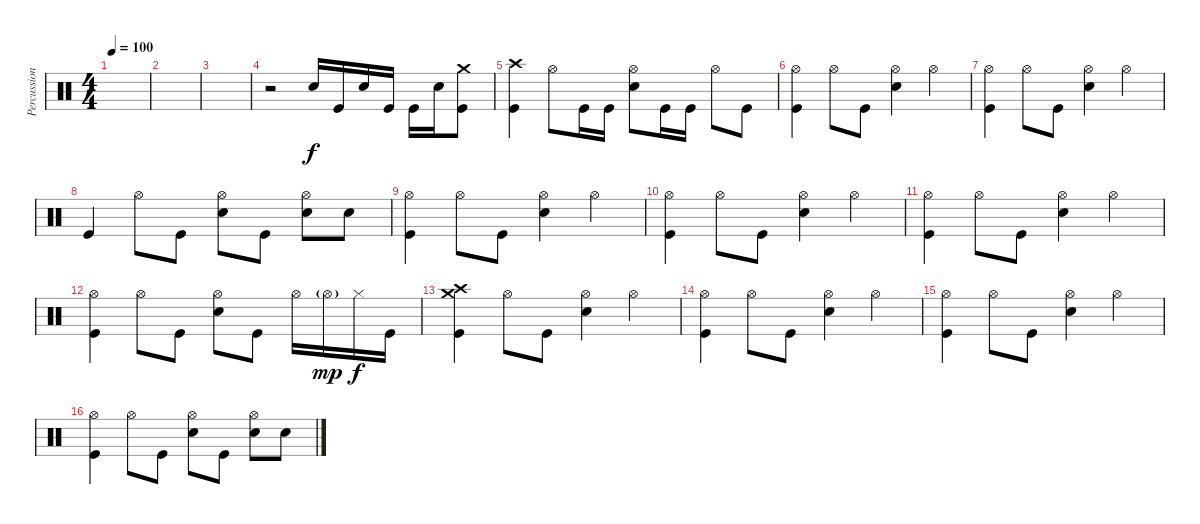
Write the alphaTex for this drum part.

\track ("Percussion" "Percussion") {instrument percussion}
\staff {score}
\articulation defaults
\ts (4 4)
\tempo 100
\clef neutral
\ks c
|
|
|
r.2 "Snare (hit) 2".16 "Kick (hit)".16 "Snare (hit) 2".16 "Kick (hit)".16 "Kick (hit)".16 "Snare (hit) 2".16 ("Crash medium (hit)" "Kick (hit)").8 |
("Crash high (hit)" "Kick (hit)").4 "Hi-Hat (open)".8 "Kick (hit)".16 "Kick (hit)".16 ("Hi-Hat (open)" "Snare (hit) 2").8 "Kick (hit)".16 "Kick (hit)".16 "Hi-Hat (open)".8 "Kick (hit)".8 |
("Hi-Hat (open)" "Kick (hit)").4 "Hi-Hat (open)".8 "Kick (hit)".8 ("Hi-Hat (open)" "Snare (hit) 2").4 "Hi-Hat (open)".4 |
("Hi-Hat (open)" "Kick (hit)").4 "Hi-Hat (open)".8 "Kick (hit)".8 ("Hi-Hat (open)" "Snare (hit) 2").4 "Hi-Hat (open)".4 |
"Kick (hit)".4 "Hi-Hat (open)".8 "Kick (hit)".8 ("Hi-Hat (open)" "Snare (hit) 2").8 "Kick (hit)".8 ("Hi-Hat (open)" "Snare (hit) 2").8 "Snare (hit) 2".8 |
("Hi-Hat (open)" "Kick (hit)").4 "Hi-Hat (open)".8 "Kick (hit)".8 ("Hi-Hat (open)" "Snare (hit) 2").4 "Hi-Hat (open)".4 |
("Hi-Hat (open)" "Kick (hit)").4 "Hi-Hat (open)".8 "Kick (hit)".8 ("Hi-Hat (open)" "Snare (hit) 2").4 "Hi-Hat (open)".4 |
("Hi-Hat (open)" "Kick (hit)").4 "Hi-Hat (open)".8 "Kick (hit)".8 ("Hi-Hat (open)" "Snare (hit) 2").4 "Hi-Hat (open)".4 |
("Hi-Hat (open)" "Kick (hit)").4 "Hi-Hat (open)".8 "Kick (hit)".8 ("Hi-Hat (open)" "Snare (hit) 2").8 "Kick (hit)".8 "Hi-Hat (open)".16 "Hi-Hat (open)"{g}.16{dy mp} "Hi-Hat (closed)".16{dy f} "Kick (hit)".16 |
("Crash high (hit)" "Crash medium (hit)" "Kick (hit)").4 "Hi-Hat (open)".8 "Kick (hit)".8 ("Hi-Hat (open)" "Snare (hit) 2").4 "Hi-Hat (open)".4 |
("Hi-Hat (open)" "Kick (hit)").4 "Hi-Hat (open)".8 "Kick (hit)".8 ("Hi-Hat (open)" "Snare (hit) 2").4 "Hi-Hat (open)".4 |
("Hi-Hat (open)" "Kick (hit)").4 "Hi-Hat (open)".8 "Kick (hit)".8 ("Hi-Hat (open)" "Snare (hit) 2").4 "Hi-Hat (open)".4 |
("Hi-Hat (open)" "Kick (hit)").4 "Hi-Hat (open)".8 "Kick (hit)".8 ("Hi-Hat (open)" "Snare (hit) 2").8 "Kick (hit)".8 ("Hi-Hat (open)" "Snare (hit) 2").8 "Snare (hit) 2".8
